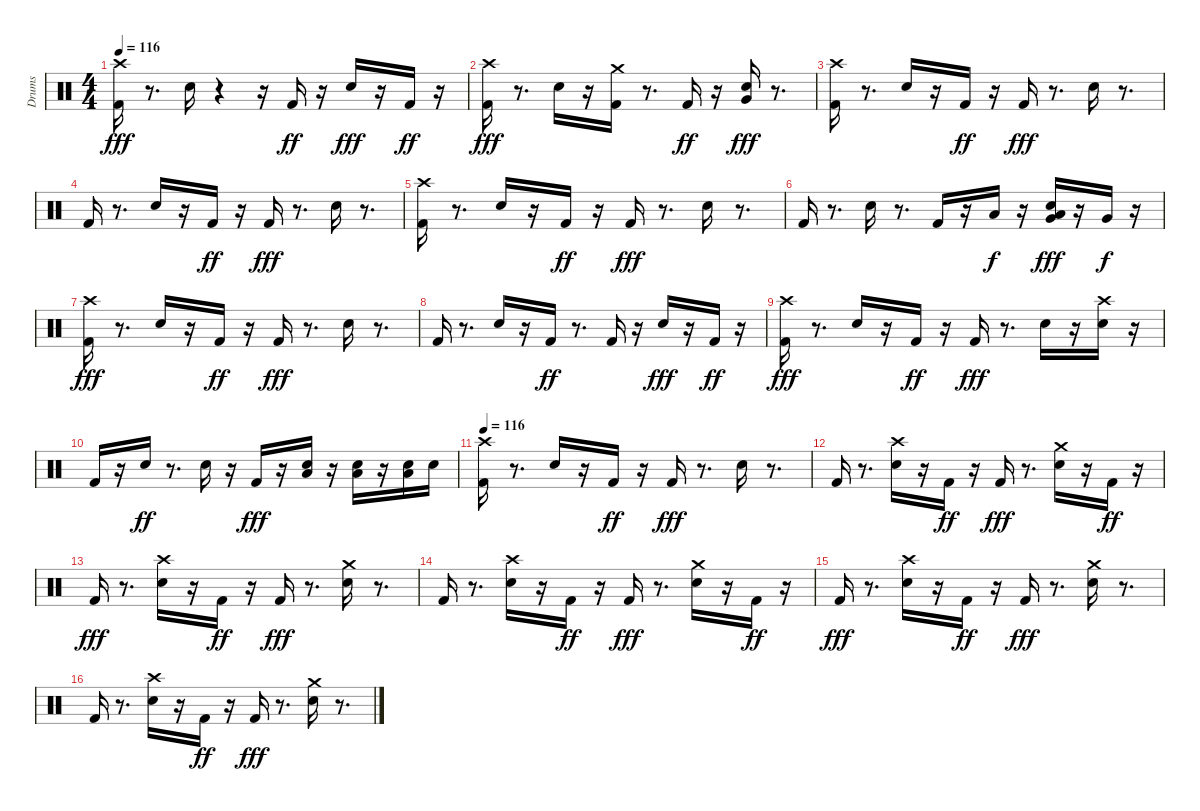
\track ("Drums" "Drums") {instrument percussion}
\staff {score}
\articulation defaults
\ts (4 4)
\tempo 116
\clef neutral
\ks c
("Crash high (hit)" "Kick (hit) 2").16{dy fff} r.8{d} "Snare (hit) 2".16 r.4 r.16 "Kick (hit) 2".16{dy ff} r.16 "Snare (hit) 2".16{dy fff} r.16 "Kick (hit) 2".16{dy ff} r.16 |
("Crash high (hit)" "Kick (hit) 2").16{dy fff} r.8{d} "Snare (hit) 2".16 r.16 ("Crash medium (hit)" "Kick (hit) 2").16 r.8{d} "Kick (hit) 2".16{dy ff} r.16 ("Very Low Tom (hit)" "Snare (hit) 2").16{dy fff} r.8{d} |
("Crash high (hit)" "Kick (hit) 2").16 r.8{d} "Snare (hit) 2".16 r.16 "Kick (hit) 2".16{dy ff} r.16 "Kick (hit) 2".16{dy fff} r.8{d} "Snare (hit) 2".16 r.8{d} |
"Kick (hit) 2".16 r.8{d} "Snare (hit) 2".16 r.16 "Kick (hit) 2".16{dy ff} r.16 "Kick (hit) 2".16{dy fff} r.8{d} "Snare (hit) 2".16 r.8{d} |
("Crash high (hit)" "Kick (hit) 2").16 r.8{d} "Snare (hit) 2".16 r.16 "Kick (hit) 2".16{dy ff} r.16 "Kick (hit) 2".16{dy fff} r.8{d} "Snare (hit) 2".16 r.8{d} |
"Kick (hit) 2".16 r.8{d} "Snare (hit) 2".16 r.8{d} "Kick (hit) 2".16 r.16 "Low Tom (hit)".16{dy f} r.16 ("Very Low Tom (hit)" "Low Tom (hit)" "Snare (hit) 2").16{dy fff} r.16 "Very Low Tom (hit)".16{dy f} r.16 |
("Crash high (hit)" "Kick (hit) 2").16{dy fff} r.8{d} "Snare (hit) 2".16 r.16 "Kick (hit) 2".16{dy ff} r.16 "Kick (hit) 2".16{dy fff} r.8{d} "Snare (hit) 2".16 r.8{d} |
"Kick (hit) 2".16 r.8{d} "Snare (hit) 2".16 r.16 "Kick (hit) 2".16{dy ff} r.8{d} "Kick (hit) 2".16 r.16 "Snare (hit) 2".16{dy fff} r.16 "Kick (hit) 2".16{dy ff} r.16 |
("Crash high (hit)" "Kick (hit) 2").16{dy fff} r.8{d} "Snare (hit) 2".16 r.16 "Kick (hit) 2".16{dy ff} r.16 "Kick (hit) 2".16{dy fff} r.8{d} "Snare (hit) 2".16 r.16 ("Crash high (hit)" "Snare (hit) 2").16 r.16 |
"Kick (hit) 2".16 r.16 "Snare (hit) 2".16{dy ff} r.8{d} "Snare (hit) 2".16 r.16 "Kick (hit) 2".16{dy fff} r.16 ("Low Tom (hit)" "Snare (hit) 2").16 r.16 ("Low Tom (hit)" "Snare (hit) 2").16 r.16 ("Snare (hit) 2" "Low Tom (hit)").16 "Snare (hit) 2".16 |
\tempo 116
("Crash high (hit)" "Kick (hit) 2").16 r.8{d} "Snare (hit) 2".16 r.16 "Kick (hit) 2".16{dy ff} r.16 "Kick (hit) 2".16{dy fff} r.8{d} "Snare (hit) 2".16 r.8{d} |
"Kick (hit) 2".16 r.8{d} ("Crash high (hit)" "Snare (hit) 2").16 r.16 "Kick (hit) 2".16{dy ff} r.16 "Kick (hit) 2".16{dy fff} r.8{d} ("Crash medium (hit)" "Snare (hit) 2").16 r.16 "Kick (hit) 2".16{dy ff} r.16 |
"Kick (hit) 2".16{dy fff} r.8{d} ("Crash high (hit)" "Snare (hit) 2").16 r.16 "Kick (hit) 2".16{dy ff} r.16 "Kick (hit) 2".16{dy fff} r.8{d} ("Crash medium (hit)" "Snare (hit) 2").16 r.8{d} |
"Kick (hit) 2".16 r.8{d} ("Crash high (hit)" "Snare (hit) 2").16 r.16 "Kick (hit) 2".16{dy ff} r.16 "Kick (hit) 2".16{dy fff} r.8{d} ("Crash medium (hit)" "Snare (hit) 2").16 r.16 "Kick (hit) 2".16{dy ff} r.16 |
"Kick (hit) 2".16{dy fff} r.8{d} ("Crash high (hit)" "Snare (hit) 2").16 r.16 "Kick (hit) 2".16{dy ff} r.16 "Kick (hit) 2".16{dy fff} r.8{d} ("Crash medium (hit)" "Snare (hit) 2").16 r.8{d} |
"Kick (hit) 2".16 r.8{d} ("Crash high (hit)" "Snare (hit) 2").16 r.16 "Kick (hit) 2".16{dy ff} r.16 "Kick (hit) 2".16{dy fff} r.8{d} ("Crash medium (hit)" "Snare (hit) 2").16 r.8{d}
